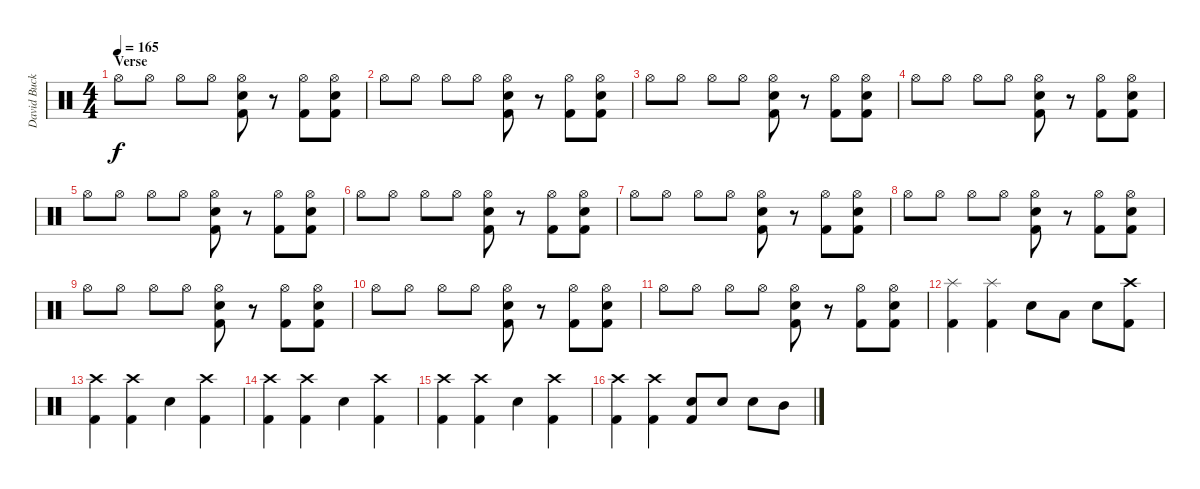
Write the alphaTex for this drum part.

\track ("David Buckner" "David Buck") {instrument percussion}
\staff {score}
\articulation defaults
\ts (4 4)
\section ("" "Verse")
\tempo 165
\clef neutral
\ks c "Hi-Hat (open)".8{dy f} "Hi-Hat (open)".8 "Hi-Hat (open)".8 "Hi-Hat (open)".8
("Hi-Hat (open)" "Snare (hit) 2" "Kick (hit) 2").8 r.8 ("Hi-Hat (open)" "Kick (hit) 2").8 ("Hi-Hat (open)" "Snare (hit) 2" "Kick (hit) 2").8 |
"Hi-Hat (open)".8 "Hi-Hat (open)".8 "Hi-Hat (open)".8 "Hi-Hat (open)".8 ("Hi-Hat (open)" "Snare (hit) 2" "Kick (hit) 2").8 r.8 ("Hi-Hat (open)" "Kick (hit) 2").8 ("Hi-Hat (open)" "Snare (hit) 2" "Kick (hit) 2").8 |
"Hi-Hat (open)".8 "Hi-Hat (open)".8 "Hi-Hat (open)".8 "Hi-Hat (open)".8 ("Hi-Hat (open)" "Snare (hit) 2" "Kick (hit) 2").8 r.8 ("Hi-Hat (open)" "Kick (hit) 2").8 ("Hi-Hat (open)" "Snare (hit) 2" "Kick (hit) 2").8 |
"Hi-Hat (open)".8 "Hi-Hat (open)".8 "Hi-Hat (open)".8 "Hi-Hat (open)".8 ("Hi-Hat (open)" "Snare (hit) 2" "Kick (hit) 2").8 r.8 ("Hi-Hat (open)" "Kick (hit) 2").8 ("Hi-Hat (open)" "Snare (hit) 2" "Kick (hit) 2").8 |
"Hi-Hat (open)".8 "Hi-Hat (open)".8 "Hi-Hat (open)".8 "Hi-Hat (open)".8 ("Hi-Hat (open)" "Snare (hit) 2" "Kick (hit) 2").8 r.8 ("Hi-Hat (open)" "Kick (hit) 2").8 ("Hi-Hat (open)" "Snare (hit) 2" "Kick (hit) 2").8 |
"Hi-Hat (open)".8 "Hi-Hat (open)".8 "Hi-Hat (open)".8 "Hi-Hat (open)".8 ("Hi-Hat (open)" "Snare (hit) 2" "Kick (hit) 2").8 r.8 ("Hi-Hat (open)" "Kick (hit) 2").8 ("Hi-Hat (open)" "Snare (hit) 2" "Kick (hit) 2").8 |
"Hi-Hat (open)".8 "Hi-Hat (open)".8 "Hi-Hat (open)".8 "Hi-Hat (open)".8 ("Hi-Hat (open)" "Snare (hit) 2" "Kick (hit) 2").8 r.8 ("Hi-Hat (open)" "Kick (hit) 2").8 ("Hi-Hat (open)" "Snare (hit) 2" "Kick (hit) 2").8 |
"Hi-Hat (open)".8 "Hi-Hat (open)".8 "Hi-Hat (open)".8 "Hi-Hat (open)".8 ("Hi-Hat (open)" "Snare (hit) 2" "Kick (hit) 2").8 r.8 ("Hi-Hat (open)" "Kick (hit) 2").8 ("Hi-Hat (open)" "Snare (hit) 2" "Kick (hit) 2").8 |
"Hi-Hat (open)".8 "Hi-Hat (open)".8 "Hi-Hat (open)".8 "Hi-Hat (open)".8 ("Hi-Hat (open)" "Snare (hit) 2" "Kick (hit) 2").8 r.8 ("Hi-Hat (open)" "Kick (hit) 2").8 ("Hi-Hat (open)" "Snare (hit) 2" "Kick (hit) 2").8 |
"Hi-Hat (open)".8 "Hi-Hat (open)".8 "Hi-Hat (open)".8 "Hi-Hat (open)".8 ("Hi-Hat (open)" "Snare (hit) 2" "Kick (hit) 2").8 r.8 ("Hi-Hat (open)" "Kick (hit) 2").8 ("Hi-Hat (open)" "Snare (hit) 2" "Kick (hit) 2").8 |
"Hi-Hat (open)".8 "Hi-Hat (open)".8 "Hi-Hat (open)".8 "Hi-Hat (open)".8 ("Hi-Hat (open)" "Snare (hit) 2" "Kick (hit) 2").8 r.8 ("Hi-Hat (open)" "Kick (hit) 2").8 ("Hi-Hat (open)" "Snare (hit) 2" "Kick (hit) 2").8 |
("Splash (hit)" "Kick (hit) 2").4 ("Splash (hit)" "Kick (hit) 2").4 "Snare (hit) 2".8 "Low Tom (hit)".8 "Snare (hit) 2".8 ("Crash high (hit)" "Kick (hit) 2").8 |
("Crash high (hit)" "Kick (hit) 2").4 ("Crash high (hit)" "Kick (hit) 2").4 "Snare (hit) 2".4 ("Crash high (hit)" "Kick (hit) 2").4 |
("Crash high (hit)" "Kick (hit) 2").4 ("Crash high (hit)" "Kick (hit) 2").4 "Snare (hit) 2".4 ("Crash high (hit)" "Kick (hit) 2").4 |
("Crash high (hit)" "Kick (hit) 2").4 ("Crash high (hit)" "Kick (hit) 2").4 "Snare (hit) 2".4 ("Crash high (hit)" "Kick (hit) 2").4 |
("Crash high (hit)" "Kick (hit) 2").4 ("Crash high (hit)" "Kick (hit) 2").4 ("Snare (hit) 2" "Kick (hit) 2").8 "Snare (hit) 2".8 "Snare (hit) 2".8 "Mid Tom (hit)".8
